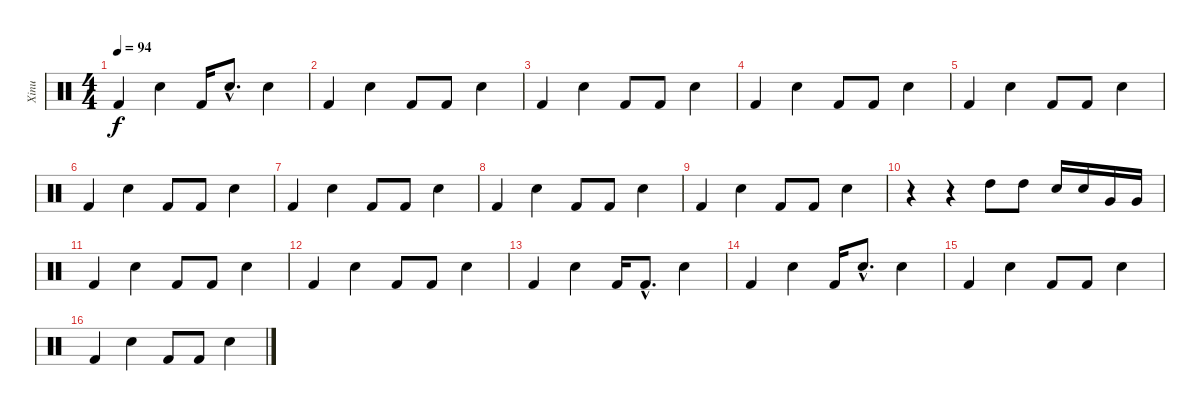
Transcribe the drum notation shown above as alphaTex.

\track ("Xinu" "Xinu") {instrument percussion}
\staff {score}
\articulation defaults
\ts (4 4)
\tempo 94
\clef neutral
\ks c "Kick (hit) 2".4{dy f} "Snare (hit) 2".4 "Kick (hit) 2".16 "Snare (hit) 2"{hac}.8{d} "Snare (hit) 2".4
|
"Kick (hit) 2".4 "Snare (hit) 2".4 "Kick (hit) 2".8 "Kick (hit) 2".8 "Snare (hit) 2".4 |
"Kick (hit) 2".4 "Snare (hit) 2".4 "Kick (hit) 2".8 "Kick (hit) 2".8 "Snare (hit) 2".4 |
"Kick (hit) 2".4 "Snare (hit) 2".4 "Kick (hit) 2".8 "Kick (hit) 2".8 "Snare (hit) 2".4 |
"Kick (hit) 2".4 "Snare (hit) 2".4 "Kick (hit) 2".8 "Kick (hit) 2".8 "Snare (hit) 2".4 |
"Kick (hit) 2".4 "Snare (hit) 2".4 "Kick (hit) 2".8 "Kick (hit) 2".8 "Snare (hit) 2".4 |
"Kick (hit) 2".4 "Snare (hit) 2".4 "Kick (hit) 2".8 "Kick (hit) 2".8 "Snare (hit) 2".4 |
"Kick (hit) 2".4 "Snare (hit) 2".4 "Kick (hit) 2".8 "Kick (hit) 2".8 "Snare (hit) 2".4 |
"Kick (hit) 2".4 "Snare (hit) 2".4 "Kick (hit) 2".8 "Kick (hit) 2".8 "Snare (hit) 2".4 |
r.4 r.4 "High Tom (hit)".8 "High Tom (hit)".8 "Electric Snare (hit)".16 "Electric Snare (hit)".16 "Very Low Tom (hit)".16 "Very Low Tom (hit)".16 |
"Kick (hit) 2".4 "Snare (hit) 2".4 "Kick (hit) 2".8 "Kick (hit) 2".8 "Snare (hit) 2".4 |
"Kick (hit) 2".4 "Snare (hit) 2".4 "Kick (hit) 2".8 "Kick (hit) 2".8 "Snare (hit) 2".4 |
"Kick (hit) 2".4 "Snare (hit) 2".4 "Kick (hit) 2".16 "Kick (hit) 2"{hac}.8{d} "Snare (hit) 2".4 |
"Kick (hit) 2".4 "Snare (hit) 2".4 "Kick (hit) 2".16 "Snare (hit) 2"{hac}.8{d} "Snare (hit) 2".4 |
"Kick (hit) 2".4 "Snare (hit) 2".4 "Kick (hit) 2".8 "Kick (hit) 2".8 "Snare (hit) 2".4 |
"Kick (hit) 2".4 "Snare (hit) 2".4 "Kick (hit) 2".8 "Kick (hit) 2".8 "Snare (hit) 2".4
